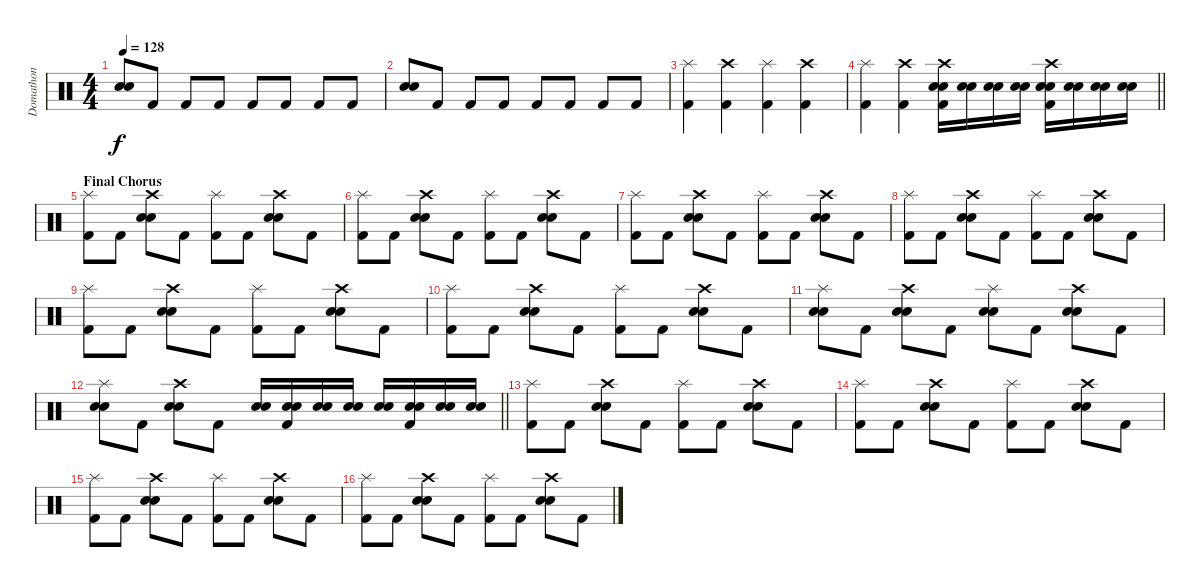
\track ("Domathon" "Domathon") {instrument percussion}
\staff {score}
\articulation defaults
\ts (4 4)
\tempo 128
\clef neutral
\ks c
("Snare (hit) 2" "Electric Snare (hit)").8{dy f} "Kick (hit) 2".8 "Kick (hit) 2".8 "Kick (hit) 2".8 "Kick (hit) 2".8 "Kick (hit) 2".8 "Kick (hit) 2".8 "Kick (hit) 2".8 |
("Snare (hit) 2" "Electric Snare (hit)").8 "Kick (hit) 2".8 "Kick (hit) 2".8 "Kick (hit) 2".8 "Kick (hit) 2".8 "Kick (hit) 2".8 "Kick (hit) 2".8 "Kick (hit) 2".8 |
("Splash (hit)" "Kick (hit) 2").4 ("Crash high (hit)" "Kick (hit) 2").4 ("Splash (hit)" "Kick (hit) 2").4 ("Crash high (hit)" "Kick (hit) 2").4 |
\barLineRight lightlight
("Splash (hit)" "Kick (hit) 2").4 ("Crash high (hit)" "Kick (hit) 2").4 ("Crash high (hit)" "Snare (hit) 2" "Electric Snare (hit)" "Kick (hit) 2").16 ("Snare (hit) 2" "Electric Snare (hit)").16 ("Snare (hit) 2" "Electric Snare (hit)").16 ("Snare (hit) 2" "Electric Snare (hit)").16 ("Crash high (hit)" "Snare (hit) 2" "Electric Snare (hit)" "Kick (hit) 2").16 ("Snare (hit) 2" "Electric Snare (hit)").16 ("Snare (hit) 2" "Electric Snare (hit)").16 ("Snare (hit) 2" "Electric Snare (hit)").16 |
\section ("" "Final Chorus")
("Splash (hit)" "Kick (hit) 2").8 "Kick (hit) 2".8 ("Crash high (hit)" "Snare (hit) 2" "Electric Snare (hit)").8 "Kick (hit) 2".8 ("Splash (hit)" "Kick (hit) 2").8 "Kick (hit) 2".8 ("Crash high (hit)" "Snare (hit) 2" "Electric Snare (hit)").8 "Kick (hit) 2".8 |
("Splash (hit)" "Kick (hit) 2").8 "Kick (hit) 2".8 ("Crash high (hit)" "Snare (hit) 2" "Electric Snare (hit)").8 "Kick (hit) 2".8 ("Splash (hit)" "Kick (hit) 2").8 "Kick (hit) 2".8 ("Crash high (hit)" "Snare (hit) 2" "Electric Snare (hit)").8 "Kick (hit) 2".8 |
("Splash (hit)" "Kick (hit) 2").8 "Kick (hit) 2".8 ("Crash high (hit)" "Snare (hit) 2" "Electric Snare (hit)").8 "Kick (hit) 2".8 ("Splash (hit)" "Kick (hit) 2").8 "Kick (hit) 2".8 ("Crash high (hit)" "Snare (hit) 2" "Electric Snare (hit)").8 "Kick (hit) 2".8 |
("Splash (hit)" "Kick (hit) 2").8 "Kick (hit) 2".8 ("Crash high (hit)" "Snare (hit) 2" "Electric Snare (hit)").8 "Kick (hit) 2".8 ("Splash (hit)" "Kick (hit) 2").8 "Kick (hit) 2".8 ("Crash high (hit)" "Snare (hit) 2" "Electric Snare (hit)").8 "Kick (hit) 2".8 |
("Splash (hit)" "Kick (hit) 2").8 "Kick (hit) 2".8 ("Crash high (hit)" "Snare (hit) 2" "Electric Snare (hit)").8 "Kick (hit) 2".8 ("Splash (hit)" "Kick (hit) 2").8 "Kick (hit) 2".8 ("Crash high (hit)" "Snare (hit) 2" "Electric Snare (hit)").8 "Kick (hit) 2".8 |
("Splash (hit)" "Kick (hit) 2").8 "Kick (hit) 2".8 ("Crash high (hit)" "Snare (hit) 2" "Electric Snare (hit)").8 "Kick (hit) 2".8 ("Splash (hit)" "Kick (hit) 2").8 "Kick (hit) 2".8 ("Crash high (hit)" "Snare (hit) 2" "Electric Snare (hit)").8 "Kick (hit) 2".8 |
("Splash (hit)" "Snare (hit) 2" "Electric Snare (hit)").8 "Kick (hit) 2".8 ("Crash high (hit)" "Snare (hit) 2" "Electric Snare (hit)").8 "Kick (hit) 2".8 ("Splash (hit)" "Snare (hit) 2" "Electric Snare (hit)").8 "Kick (hit) 2".8 ("Crash high (hit)" "Snare (hit) 2" "Electric Snare (hit)").8 "Kick (hit) 2".8 |
\barLineRight lightlight
("Splash (hit)" "Snare (hit) 2" "Electric Snare (hit)").8 "Kick (hit) 2".8 ("Crash high (hit)" "Snare (hit) 2" "Electric Snare (hit)").8 "Kick (hit) 2".8 ("Snare (hit) 2" "Electric Snare (hit)").16 ("Snare (hit) 2" "Electric Snare (hit)" "Kick (hit) 2").16 ("Snare (hit) 2" "Electric Snare (hit)").16 ("Snare (hit) 2" "Electric Snare (hit)").16 ("Snare (hit) 2" "Electric Snare (hit)").16 ("Snare (hit) 2" "Electric Snare (hit)" "Kick (hit) 2").16 ("Snare (hit) 2" "Electric Snare (hit)").16 ("Snare (hit) 2" "Electric Snare (hit)").16 |
("Splash (hit)" "Kick (hit) 2").8 "Kick (hit) 2".8 ("Crash high (hit)" "Snare (hit) 2" "Electric Snare (hit)").8 "Kick (hit) 2".8 ("Splash (hit)" "Kick (hit) 2").8 "Kick (hit) 2".8 ("Crash high (hit)" "Snare (hit) 2" "Electric Snare (hit)").8 "Kick (hit) 2".8 |
("Splash (hit)" "Kick (hit) 2").8 "Kick (hit) 2".8 ("Crash high (hit)" "Snare (hit) 2" "Electric Snare (hit)").8 "Kick (hit) 2".8 ("Splash (hit)" "Kick (hit) 2").8 "Kick (hit) 2".8 ("Crash high (hit)" "Snare (hit) 2" "Electric Snare (hit)").8 "Kick (hit) 2".8 |
("Splash (hit)" "Kick (hit) 2").8 "Kick (hit) 2".8 ("Crash high (hit)" "Snare (hit) 2" "Electric Snare (hit)").8 "Kick (hit) 2".8 ("Splash (hit)" "Kick (hit) 2").8 "Kick (hit) 2".8 ("Crash high (hit)" "Snare (hit) 2" "Electric Snare (hit)").8 "Kick (hit) 2".8 |
("Splash (hit)" "Kick (hit) 2").8 "Kick (hit) 2".8 ("Crash high (hit)" "Snare (hit) 2" "Electric Snare (hit)").8 "Kick (hit) 2".8 ("Splash (hit)" "Kick (hit) 2").8 "Kick (hit) 2".8 ("Crash high (hit)" "Snare (hit) 2" "Electric Snare (hit)").8 "Kick (hit) 2".8
